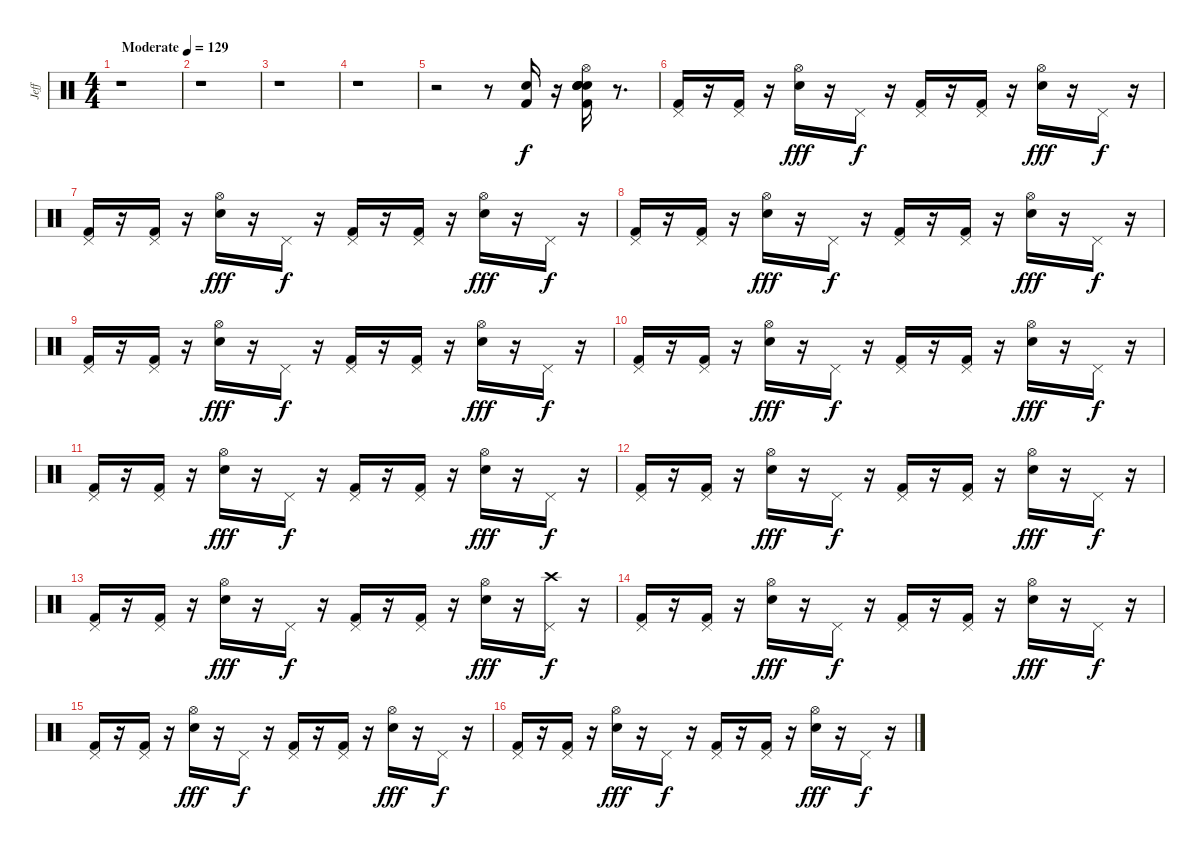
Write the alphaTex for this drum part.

\track ("Jeff" "Jeff") {instrument percussion}
\staff {score}
\articulation defaults
\ts (4 4)
\tempo (129 "Moderate")
\clef neutral
\ks c
r.1{dy f} |
r.1 |
r.1 |
r.1 |
r.2 r.8 ("Kick (hit) 2" "Snare (hit) 2").16 r.16 ("Snare (hit) 2" "Kick (hit) 2" "Electric Snare (hit)" "Hi-Hat (open)" "Snare (hit) 2" "Electric Snare (hit)").16 r.8{d} |
("Kick (hit) 2" "Pedal Hi-Hat (hit)").16 r.16 ("Kick (hit) 2" "Pedal Hi-Hat (hit)").16 r.16 ("Electric Snare (hit)" "Hi-Hat (open)").16{dy fff} r.16 "Pedal Hi-Hat (hit)".16{dy f} r.16 ("Kick (hit) 2" "Pedal Hi-Hat (hit)").16 r.16 ("Kick (hit) 2" "Pedal Hi-Hat (hit)").16 r.16 ("Electric Snare (hit)" "Hi-Hat (open)").16{dy fff} r.16 "Pedal Hi-Hat (hit)".16{dy f} r.16 |
("Kick (hit) 2" "Pedal Hi-Hat (hit)").16 r.16 ("Kick (hit) 2" "Pedal Hi-Hat (hit)").16 r.16 ("Electric Snare (hit)" "Hi-Hat (open)").16{dy fff} r.16 "Pedal Hi-Hat (hit)".16{dy f} r.16 ("Kick (hit) 2" "Pedal Hi-Hat (hit)").16 r.16 ("Kick (hit) 2" "Pedal Hi-Hat (hit)").16 r.16 ("Electric Snare (hit)" "Hi-Hat (open)").16{dy fff} r.16 "Pedal Hi-Hat (hit)".16{dy f} r.16 |
("Kick (hit) 2" "Pedal Hi-Hat (hit)").16 r.16 ("Kick (hit) 2" "Pedal Hi-Hat (hit)").16 r.16 ("Electric Snare (hit)" "Hi-Hat (open)").16{dy fff} r.16 "Pedal Hi-Hat (hit)".16{dy f} r.16 ("Kick (hit) 2" "Pedal Hi-Hat (hit)").16 r.16 ("Kick (hit) 2" "Pedal Hi-Hat (hit)").16 r.16 ("Electric Snare (hit)" "Hi-Hat (open)").16{dy fff} r.16 "Pedal Hi-Hat (hit)".16{dy f} r.16 |
("Kick (hit) 2" "Pedal Hi-Hat (hit)").16 r.16 ("Kick (hit) 2" "Pedal Hi-Hat (hit)").16 r.16 ("Electric Snare (hit)" "Hi-Hat (open)").16{dy fff} r.16 "Pedal Hi-Hat (hit)".16{dy f} r.16 ("Kick (hit) 2" "Pedal Hi-Hat (hit)").16 r.16 ("Kick (hit) 2" "Pedal Hi-Hat (hit)").16 r.16 ("Electric Snare (hit)" "Hi-Hat (open)").16{dy fff} r.16 "Pedal Hi-Hat (hit)".16{dy f} r.16 |
("Kick (hit) 2" "Pedal Hi-Hat (hit)").16 r.16 ("Kick (hit) 2" "Pedal Hi-Hat (hit)").16 r.16 ("Electric Snare (hit)" "Hi-Hat (open)").16{dy fff} r.16 "Pedal Hi-Hat (hit)".16{dy f} r.16 ("Kick (hit) 2" "Pedal Hi-Hat (hit)").16 r.16 ("Kick (hit) 2" "Pedal Hi-Hat (hit)").16 r.16 ("Electric Snare (hit)" "Hi-Hat (open)").16{dy fff} r.16 "Pedal Hi-Hat (hit)".16{dy f} r.16 |
("Kick (hit) 2" "Pedal Hi-Hat (hit)").16 r.16 ("Kick (hit) 2" "Pedal Hi-Hat (hit)").16 r.16 ("Electric Snare (hit)" "Hi-Hat (open)").16{dy fff} r.16 "Pedal Hi-Hat (hit)".16{dy f} r.16 ("Kick (hit) 2" "Pedal Hi-Hat (hit)").16 r.16 ("Kick (hit) 2" "Pedal Hi-Hat (hit)").16 r.16 ("Electric Snare (hit)" "Hi-Hat (open)").16{dy fff} r.16 "Pedal Hi-Hat (hit)".16{dy f} r.16 |
("Kick (hit) 2" "Pedal Hi-Hat (hit)").16 r.16 ("Kick (hit) 2" "Pedal Hi-Hat (hit)").16 r.16 ("Electric Snare (hit)" "Hi-Hat (open)").16{dy fff} r.16 "Pedal Hi-Hat (hit)".16{dy f} r.16 ("Kick (hit) 2" "Pedal Hi-Hat (hit)").16 r.16 ("Kick (hit) 2" "Pedal Hi-Hat (hit)").16 r.16 ("Electric Snare (hit)" "Hi-Hat (open)").16{dy fff} r.16 "Pedal Hi-Hat (hit)".16{dy f} r.16 |
("Kick (hit) 2" "Pedal Hi-Hat (hit)").16 r.16 ("Kick (hit) 2" "Pedal Hi-Hat (hit)").16 r.16 ("Electric Snare (hit)" "Hi-Hat (open)").16{dy fff} r.16 "Pedal Hi-Hat (hit)".16{dy f} r.16 ("Kick (hit) 2" "Pedal Hi-Hat (hit)").16 r.16 ("Kick (hit) 2" "Pedal Hi-Hat (hit)").16 r.16 ("Electric Snare (hit)" "Hi-Hat (open)").16{dy fff} r.16 ("Pedal Hi-Hat (hit)" "Crash high (hit)").16{dy f} r.16 |
("Kick (hit) 2" "Pedal Hi-Hat (hit)").16 r.16 ("Kick (hit) 2" "Pedal Hi-Hat (hit)").16 r.16 ("Electric Snare (hit)" "Hi-Hat (open)").16{dy fff} r.16 "Pedal Hi-Hat (hit)".16{dy f} r.16 ("Kick (hit) 2" "Pedal Hi-Hat (hit)").16 r.16 ("Kick (hit) 2" "Pedal Hi-Hat (hit)").16 r.16 ("Electric Snare (hit)" "Hi-Hat (open)").16{dy fff} r.16 "Pedal Hi-Hat (hit)".16{dy f} r.16 |
("Kick (hit) 2" "Pedal Hi-Hat (hit)").16 r.16 ("Kick (hit) 2" "Pedal Hi-Hat (hit)").16 r.16 ("Electric Snare (hit)" "Hi-Hat (open)").16{dy fff} r.16 "Pedal Hi-Hat (hit)".16{dy f} r.16 ("Kick (hit) 2" "Pedal Hi-Hat (hit)").16 r.16 ("Kick (hit) 2" "Pedal Hi-Hat (hit)").16 r.16 ("Electric Snare (hit)" "Hi-Hat (open)").16{dy fff} r.16 "Pedal Hi-Hat (hit)".16{dy f} r.16 |
("Kick (hit) 2" "Pedal Hi-Hat (hit)").16 r.16 ("Kick (hit) 2" "Pedal Hi-Hat (hit)").16 r.16 ("Electric Snare (hit)" "Hi-Hat (open)").16{dy fff} r.16 "Pedal Hi-Hat (hit)".16{dy f} r.16 ("Kick (hit) 2" "Pedal Hi-Hat (hit)").16 r.16 ("Kick (hit) 2" "Pedal Hi-Hat (hit)").16 r.16 ("Electric Snare (hit)" "Hi-Hat (open)").16{dy fff} r.16 "Pedal Hi-Hat (hit)".16{dy f} r.16
